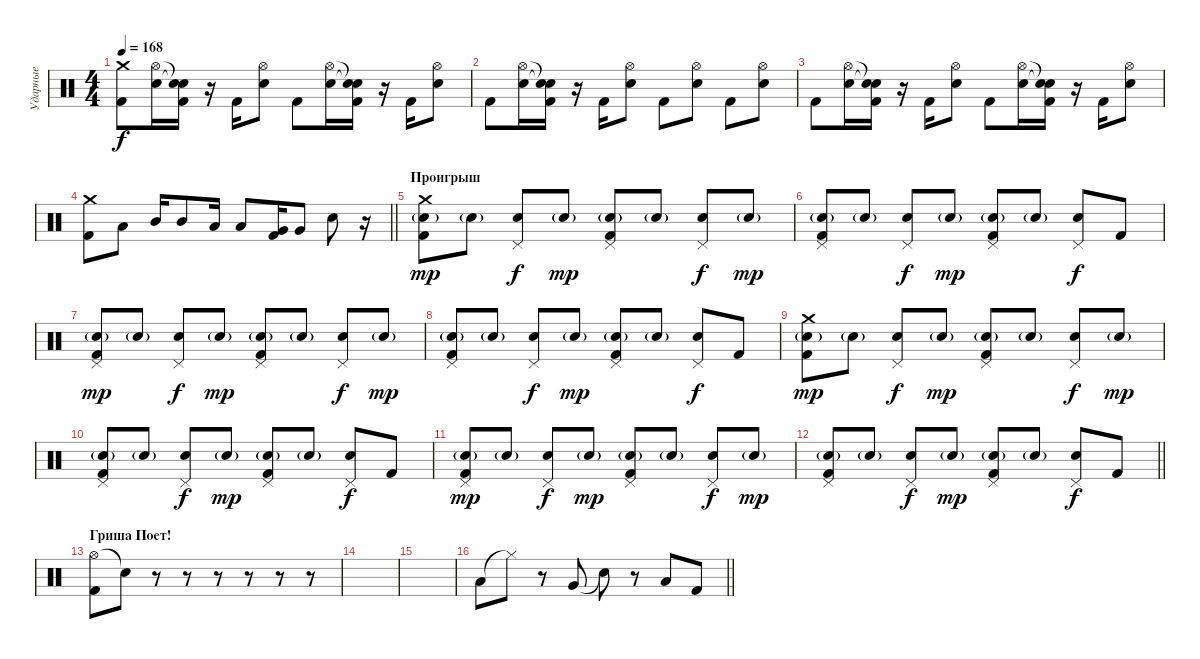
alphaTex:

\track ("Ударные" "Ударные") {instrument percussion}
\staff {score}
\articulation defaults
\ts (4 4)
\tempo 168
\clef neutral
\ks c
("Crash medium (hit)" "Kick (hit) 2").8{dy f} ("Hi-Hat (open)" "Snare (hit) 2").16 ("Snare (hit)"{t} "Snare (hit)"{t} "Kick (hit) 2").16 r.16 "Kick (hit) 2".16 ("Hi-Hat (open)" "Snare (hit) 2").8 "Kick (hit) 2".8 ("Hi-Hat (open)" "Snare (hit) 2").16 ("Snare (hit)"{t} "Snare (hit)"{t} "Kick (hit) 2").16 r.16 "Kick (hit) 2".16 ("Hi-Hat (open)" "Snare (hit) 2").8 |
"Kick (hit) 2".8 ("Hi-Hat (open)" "Snare (hit) 2").16 ("Snare (hit)"{t} "Snare (hit)"{t} "Kick (hit) 2").16 r.16 "Kick (hit) 2".16 ("Hi-Hat (open)" "Snare (hit) 2").8 "Kick (hit) 2".8 ("Hi-Hat (open)" "Snare (hit) 2").8 "Kick (hit) 2".8 ("Hi-Hat (open)" "Snare (hit) 2").8 |
"Kick (hit) 2".8 ("Hi-Hat (open)" "Snare (hit) 2").16 ("Snare (hit)"{t} "Snare (hit)"{t} "Kick (hit) 2").16 r.16 "Kick (hit) 2".16 ("Hi-Hat (open)" "Snare (hit) 2").8 "Kick (hit) 2".8 ("Hi-Hat (open)" "Snare (hit) 2").16 ("Snare (hit)"{t} "Snare (hit)"{t} "Kick (hit) 2").16 r.16 "Kick (hit) 2".16 ("Hi-Hat (open)" "Snare (hit) 2").8 |
\barLineRight lightlight
("Crash medium (hit)" "Kick (hit) 2").8 "Low Tom (hit)".8 "Mid Tom (hit)".16 "Mid Tom (hit)".8 "Low Tom (hit)".16 "Low Tom (hit)".8 ("Very Low Tom (hit)" "Kick (hit) 2").16 "Very Low Tom (hit)".8 "Snare (hit) 2".8 r.16 |
\section ("" "Проигрыш")
("Crash medium (hit)" "Snare (hit) 2"{g} "Kick (hit) 2").8{dy mp} "Snare (hit) 2"{g}.8 ("Pedal Hi-Hat (hit)" "Snare (hit) 2").8{dy f} "Snare (hit) 2"{g}.8{dy mp} ("Pedal Hi-Hat (hit)" "Snare (hit) 2"{g} "Kick (hit) 2").8 "Snare (hit) 2"{g}.8 ("Pedal Hi-Hat (hit)" "Snare (hit) 2").8{dy f} "Snare (hit) 2"{g}.8{dy mp} |
("Pedal Hi-Hat (hit)" "Snare (hit) 2"{g} "Kick (hit) 2").8 "Snare (hit) 2"{g}.8 ("Pedal Hi-Hat (hit)" "Snare (hit) 2").8{dy f} "Snare (hit) 2"{g}.8{dy mp} ("Pedal Hi-Hat (hit)" "Snare (hit) 2"{g} "Kick (hit) 2").8 "Snare (hit) 2"{g}.8 ("Pedal Hi-Hat (hit)" "Snare (hit) 2").8{dy f} "Kick (hit) 2".8 |
("Pedal Hi-Hat (hit)" "Snare (hit) 2"{g} "Kick (hit) 2").8{dy mp} "Snare (hit) 2"{g}.8 ("Pedal Hi-Hat (hit)" "Snare (hit) 2").8{dy f} "Snare (hit) 2"{g}.8{dy mp} ("Pedal Hi-Hat (hit)" "Snare (hit) 2"{g} "Kick (hit) 2").8 "Snare (hit) 2"{g}.8 ("Pedal Hi-Hat (hit)" "Snare (hit) 2").8{dy f} "Snare (hit) 2"{g}.8{dy mp} |
("Pedal Hi-Hat (hit)" "Snare (hit) 2"{g} "Kick (hit) 2").8 "Snare (hit) 2"{g}.8 ("Pedal Hi-Hat (hit)" "Snare (hit) 2").8{dy f} "Snare (hit) 2"{g}.8{dy mp} ("Pedal Hi-Hat (hit)" "Snare (hit) 2"{g} "Kick (hit) 2").8 "Snare (hit) 2"{g}.8 ("Pedal Hi-Hat (hit)" "Snare (hit) 2").8{dy f} "Kick (hit) 2".8 |
("Crash medium (hit)" "Snare (hit) 2"{g} "Kick (hit) 2").8{dy mp} "Snare (hit) 2"{g}.8 ("Pedal Hi-Hat (hit)" "Snare (hit) 2").8{dy f} "Snare (hit) 2"{g}.8{dy mp} ("Pedal Hi-Hat (hit)" "Snare (hit) 2"{g} "Kick (hit) 2").8 "Snare (hit) 2"{g}.8 ("Pedal Hi-Hat (hit)" "Snare (hit) 2").8{dy f} "Snare (hit) 2"{g}.8{dy mp} |
("Pedal Hi-Hat (hit)" "Snare (hit) 2"{g} "Kick (hit) 2").8 "Snare (hit) 2"{g}.8 ("Pedal Hi-Hat (hit)" "Snare (hit) 2").8{dy f} "Snare (hit) 2"{g}.8{dy mp} ("Pedal Hi-Hat (hit)" "Snare (hit) 2"{g} "Kick (hit) 2").8 "Snare (hit) 2"{g}.8 ("Pedal Hi-Hat (hit)" "Snare (hit) 2").8{dy f} "Kick (hit) 2".8 |
("Pedal Hi-Hat (hit)" "Snare (hit) 2"{g} "Kick (hit) 2").8{dy mp} "Snare (hit) 2"{g}.8 ("Pedal Hi-Hat (hit)" "Snare (hit) 2").8{dy f} "Snare (hit) 2"{g}.8{dy mp} ("Pedal Hi-Hat (hit)" "Snare (hit) 2"{g} "Kick (hit) 2").8 "Snare (hit) 2"{g}.8 ("Pedal Hi-Hat (hit)" "Snare (hit) 2").8{dy f} "Snare (hit) 2"{g}.8{dy mp} |
\barLineRight lightlight
("Pedal Hi-Hat (hit)" "Snare (hit) 2"{g} "Kick (hit) 2").8 "Snare (hit) 2"{g}.8 ("Pedal Hi-Hat (hit)" "Snare (hit) 2").8{dy f} "Snare (hit) 2"{g}.8{dy mp} ("Pedal Hi-Hat (hit)" "Snare (hit) 2"{g} "Kick (hit) 2").8 "Snare (hit) 2"{g}.8 ("Pedal Hi-Hat (hit)" "Snare (hit) 2").8{dy f} "Kick (hit) 2".8 |
\section ("" "Гриша Поет!")
("Hi-Hat (open)" "Kick (hit) 2").8 "Snare (hit)"{t}.8 r.8 r.8 r.8 r.8 r.8 r.8 |
|
|
\barLineRight lightlight "Low Floor Tom (hit)".8 "Hi-Hat (closed)"{t}.8
r.8 "Very Low Tom (hit)".8 "Snare (hit)"{t}.8 r.8 "Low Tom (hit)".8 "Kick (hit) 2".8
